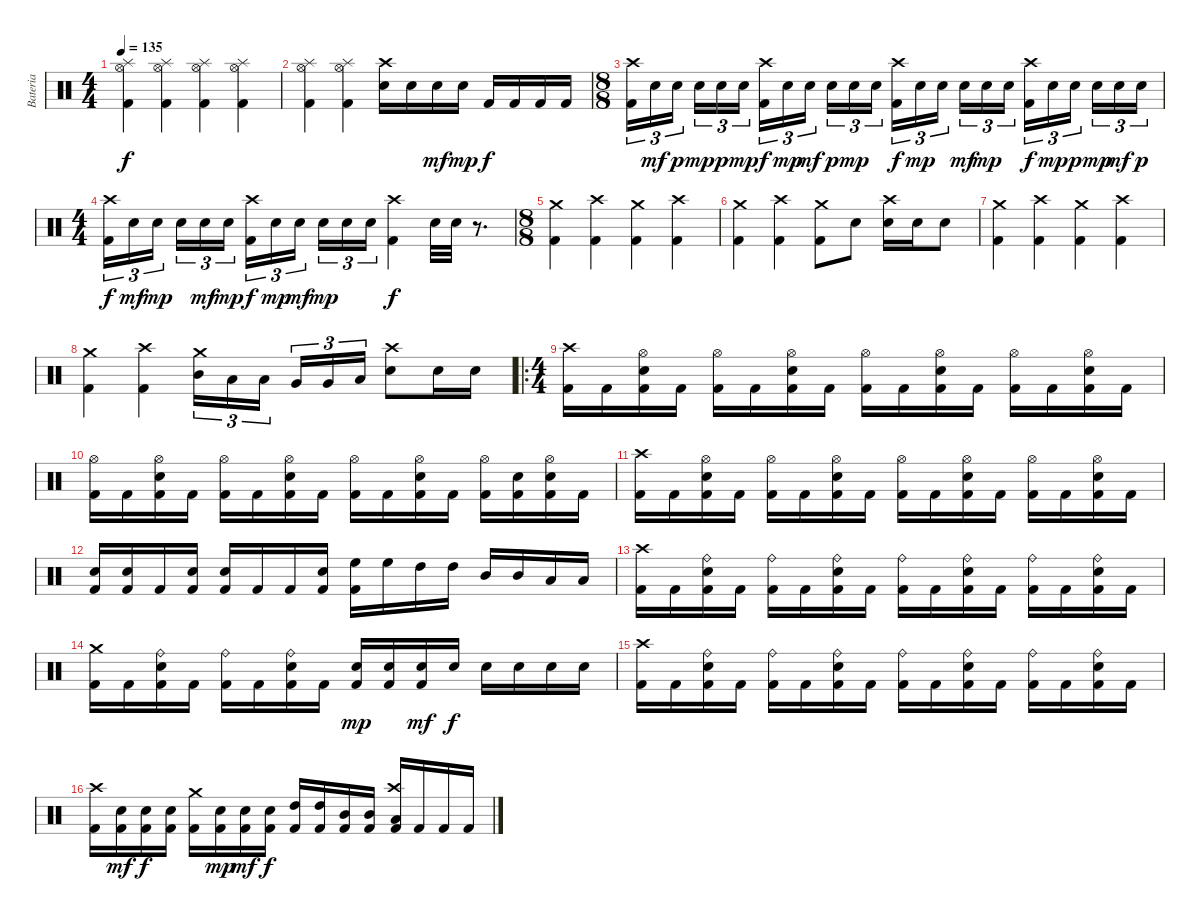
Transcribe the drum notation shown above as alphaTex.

\track ("Bateria" "Bateria") {instrument percussion}
\staff {score}
\articulation defaults
\ts (4 4)
\tempo 135
\clef neutral
\ks c
("Splash (hit)" "Hi-Hat (open)" "Kick (hit) 2").4{dy f} ("Splash (hit)" "Hi-Hat (open)" "Kick (hit) 2").4 ("Splash (hit)" "Hi-Hat (open)" "Kick (hit) 2").4 ("Splash (hit)" "Hi-Hat (open)" "Kick (hit) 2").4 |
("Splash (hit)" "Hi-Hat (open)" "Kick (hit) 2").4 ("Splash (hit)" "Hi-Hat (open)" "Kick (hit) 2").4 ("Crash high (hit)" "Electric Snare (hit)").16 "Electric Snare (hit)".16 "Electric Snare (hit)".16{dy mf} "Electric Snare (hit)".16{dy mp} "Kick (hit) 2".16{dy f} "Kick (hit) 2".16 "Kick (hit) 2".16 "Kick (hit) 2".16 |
\ts (8 8)
("Crash high (hit)" "Kick (hit) 2").16{tu (3 2)} "Electric Snare (hit)".16{tu (3 2) dy mf} "Electric Snare (hit)".16{tu (3 2) dy p} "Electric Snare (hit)".16{tu (3 2) dy mp} "Electric Snare (hit)".16{tu (3 2) dy p} "Electric Snare (hit)".16{tu (3 2) dy mp} ("Crash high (hit)" "Kick (hit) 2").16{tu (3 2) dy f} "Electric Snare (hit)".16{tu (3 2) dy mp} "Electric Snare (hit)".16{tu (3 2) dy mf} "Electric Snare (hit)".16{tu (3 2) dy p} "Electric Snare (hit)".16{tu (3 2) dy mp} "Electric Snare (hit)".16{tu (3 2)} ("Crash high (hit)" "Kick (hit) 2").16{tu (3 2) dy f} "Electric Snare (hit)".16{tu (3 2) dy mp} "Electric Snare (hit)".16{tu (3 2)} "Electric Snare (hit)".16{tu (3 2) dy mf} "Electric Snare (hit)".16{tu (3 2) dy mp} "Electric Snare (hit)".16{tu (3 2)} ("Crash high (hit)" "Kick (hit) 2").16{tu (3 2) dy f} "Electric Snare (hit)".16{tu (3 2) dy mp} "Electric Snare (hit)".16{tu (3 2) dy p} "Electric Snare (hit)".16{tu (3 2) dy mp} "Electric Snare (hit)".16{tu (3 2) dy mf} "Electric Snare (hit)".16{tu (3 2) dy p} |
\ts (4 4)
("Crash high (hit)" "Kick (hit) 2").16{tu (3 2) dy f} "Electric Snare (hit)".16{tu (3 2) dy mf} "Electric Snare (hit)".16{tu (3 2) dy mp} "Electric Snare (hit)".16{tu (3 2)} "Electric Snare (hit)".16{tu (3 2) dy mf} "Electric Snare (hit)".16{tu (3 2) dy mp} ("Crash high (hit)" "Kick (hit) 2").16{tu (3 2) dy f} "Electric Snare (hit)".16{tu (3 2) dy mp} "Electric Snare (hit)".16{tu (3 2) dy mf} "Electric Snare (hit)".16{tu (3 2) dy mp} "Electric Snare (hit)".16{tu (3 2)} "Electric Snare (hit)".16{tu (3 2)} ("Crash high (hit)" "Kick (hit) 2").4{dy f} "Electric Snare (hit)".32 "Electric Snare (hit)".32 r.8{d} |
\ts (8 8)
("Crash medium (hit)" "Kick (hit) 2").4 ("Crash high (hit)" "Kick (hit) 2").4 ("Crash medium (hit)" "Kick (hit) 2").4 ("Crash high (hit)" "Kick (hit) 2").4 |
("Crash medium (hit)" "Kick (hit) 2").4 ("Crash high (hit)" "Kick (hit) 2").4 ("Crash medium (hit)" "Kick (hit) 2").8 "Electric Snare (hit)".8 ("Crash high (hit)" "Electric Snare (hit)").16 "Electric Snare (hit)".16 "Electric Snare (hit)".8 |
("Crash medium (hit)" "Kick (hit) 2").4 ("Crash high (hit)" "Kick (hit) 2").4 ("Crash medium (hit)" "Kick (hit) 2").4 ("Crash high (hit)" "Kick (hit) 2").4 |
("Crash medium (hit)" "Kick (hit) 2").4 ("Crash high (hit)" "Kick (hit) 2").4 ("Crash medium (hit)" "Mid Tom (hit)").16{tu (3 2)} "Low Tom (hit)".16{tu (3 2)} "Low Tom (hit)".16{tu (3 2)} "Very Low Tom (hit)".16{tu (3 2)} "Very Low Tom (hit)".16{tu (3 2)} "Low Floor Tom (hit)".16{tu (3 2)} ("Crash high (hit)" "Electric Snare (hit)").8 "Electric Snare (hit)".16 "Electric Snare (hit)".16 |
\ro
\ts (4 4)
("Crash high (hit)" "Kick (hit) 2").16 "Kick (hit) 2".16 ("Hi-Hat (open)" "Electric Snare (hit)" "Kick (hit) 2").16 "Kick (hit) 2".16 ("Hi-Hat (open)" "Kick (hit) 2").16 "Kick (hit) 2".16 ("Hi-Hat (open)" "Electric Snare (hit)" "Kick (hit) 2").16 "Kick (hit) 2".16 ("Hi-Hat (open)" "Kick (hit) 2").16 "Kick (hit) 2".16 ("Hi-Hat (open)" "Electric Snare (hit)" "Kick (hit) 2").16 "Kick (hit) 2".16 ("Hi-Hat (open)" "Kick (hit) 2").16 "Kick (hit) 2".16 ("Hi-Hat (open)" "Electric Snare (hit)" "Kick (hit) 2").16 "Kick (hit) 2".16 |
("Hi-Hat (open)" "Kick (hit) 2").16 "Kick (hit) 2".16 ("Hi-Hat (open)" "Electric Snare (hit)" "Kick (hit) 2").16 "Kick (hit) 2".16 ("Hi-Hat (open)" "Kick (hit) 2").16 "Kick (hit) 2".16 ("Hi-Hat (open)" "Electric Snare (hit)" "Kick (hit) 2").16 "Kick (hit) 2".16 ("Hi-Hat (open)" "Kick (hit) 2").16 "Kick (hit) 2".16 ("Hi-Hat (open)" "Electric Snare (hit)" "Kick (hit) 2").16 "Kick (hit) 2".16 ("Hi-Hat (open)" "Kick (hit) 2").16 ("Electric Snare (hit)" "Kick (hit) 2").16 ("Hi-Hat (open)" "Electric Snare (hit)" "Kick (hit) 2").16 "Kick (hit) 2".16 |
("Crash high (hit)" "Kick (hit) 2").16 "Kick (hit) 2".16 ("Hi-Hat (open)" "Electric Snare (hit)" "Kick (hit) 2").16 "Kick (hit) 2".16 ("Hi-Hat (open)" "Kick (hit) 2").16 "Kick (hit) 2".16 ("Hi-Hat (open)" "Electric Snare (hit)" "Kick (hit) 2").16 "Kick (hit) 2".16 ("Hi-Hat (open)" "Kick (hit) 2").16 "Kick (hit) 2".16 ("Hi-Hat (open)" "Electric Snare (hit)" "Kick (hit) 2").16 "Kick (hit) 2".16 ("Hi-Hat (open)" "Kick (hit) 2").16 "Kick (hit) 2".16 ("Hi-Hat (open)" "Electric Snare (hit)" "Kick (hit) 2").16 "Kick (hit) 2".16 |
("Electric Snare (hit)" "Kick (hit) 2").16 ("Electric Snare (hit)" "Kick (hit) 2").16 "Kick (hit) 2".16 ("Electric Snare (hit)" "Kick (hit) 2").16 ("Electric Snare (hit)" "Kick (hit) 2").16 "Kick (hit) 2".16 "Kick (hit) 2".16 ("Electric Snare (hit)" "Kick (hit) 2").16 ("High Floor Tom (hit)" "Kick (hit) 2").16 "High Floor Tom (hit)".16 "High Tom (hit)".16 "High Tom (hit)".16 "Mid Tom (hit)".16 "Mid Tom (hit)".16 "Low Tom (hit)".16 "Low Tom (hit)".16 |
("Crash high (hit)" "Kick (hit) 2").16 "Kick (hit) 2".16 ("Ride (bell)" "Electric Snare (hit)" "Kick (hit) 2").16 "Kick (hit) 2".16 ("Ride (bell)" "Kick (hit) 2").16 "Kick (hit) 2".16 ("Ride (bell)" "Electric Snare (hit)" "Kick (hit) 2").16 "Kick (hit) 2".16 ("Ride (bell)" "Kick (hit) 2").16 "Kick (hit) 2".16 ("Ride (bell)" "Electric Snare (hit)" "Kick (hit) 2").16 "Kick (hit) 2".16 ("Ride (bell)" "Kick (hit) 2").16 "Kick (hit) 2".16 ("Ride (bell)" "Electric Snare (hit)" "Kick (hit) 2").16 "Kick (hit) 2".16 |
("Crash medium (hit)" "Kick (hit) 2").16 "Kick (hit) 2".16 ("Ride (bell)" "Electric Snare (hit)" "Kick (hit) 2").16 "Kick (hit) 2".16 ("Ride (bell)" "Kick (hit) 2").16 "Kick (hit) 2".16 ("Ride (bell)" "Electric Snare (hit)" "Kick (hit) 2").16 "Kick (hit) 2".16 ("Electric Snare (hit)" "Kick (hit) 2").16{dy mp} ("Electric Snare (hit)" "Kick (hit) 2").16 ("Electric Snare (hit)" "Kick (hit) 2").16{dy mf} "Electric Snare (hit)".16{dy f} "Electric Snare (hit)".16 "Electric Snare (hit)".16 "Electric Snare (hit)".16 "Electric Snare (hit)".16 |
("Crash high (hit)" "Kick (hit) 2").16 "Kick (hit) 2".16 ("Ride (bell)" "Electric Snare (hit)" "Kick (hit) 2").16 "Kick (hit) 2".16 ("Ride (bell)" "Kick (hit) 2").16 "Kick (hit) 2".16 ("Ride (bell)" "Electric Snare (hit)" "Kick (hit) 2").16 "Kick (hit) 2".16 ("Ride (bell)" "Kick (hit) 2").16 "Kick (hit) 2".16 ("Ride (bell)" "Electric Snare (hit)" "Kick (hit) 2").16 "Kick (hit) 2".16 ("Ride (bell)" "Kick (hit) 2").16 "Kick (hit) 2".16 ("Ride (bell)" "Electric Snare (hit)" "Kick (hit) 2").16 "Kick (hit) 2".16 |
("Crash high (hit)" "Kick (hit) 2").16 ("Electric Snare (hit)" "Kick (hit) 2").16{dy mf} ("Electric Snare (hit)" "Kick (hit) 2").16{dy f} ("Electric Snare (hit)" "Kick (hit) 2").16 ("Crash medium (hit)" "Kick (hit) 2").16 ("Electric Snare (hit)" "Kick (hit) 2").16{dy mp} ("Electric Snare (hit)" "Kick (hit) 2").16{dy mf} ("Electric Snare (hit)" "Kick (hit) 2").16{dy f} ("High Tom (hit)" "Kick (hit) 2").16 ("High Tom (hit)" "Kick (hit) 2").16 ("Mid Tom (hit)" "Kick (hit) 2").16 ("Mid Tom (hit)" "Kick (hit) 2").16 ("Crash high (hit)" "Low Tom (hit)" "Kick (hit) 2").16 "Kick (hit) 2".16 "Kick (hit) 2".16 "Kick (hit) 2".16
